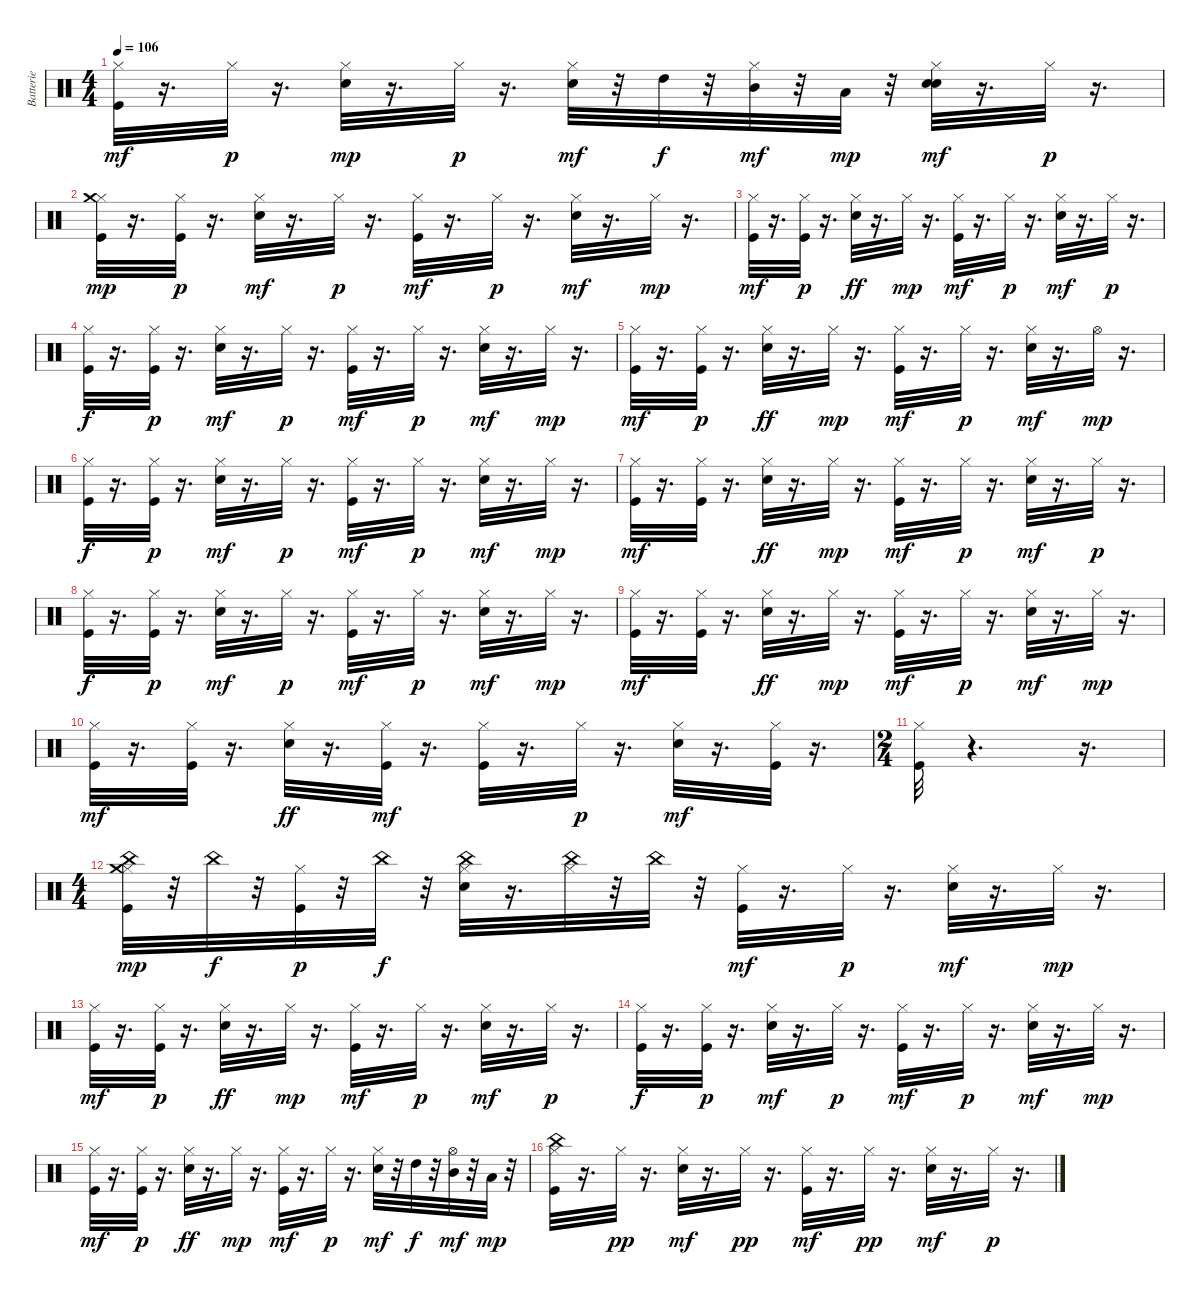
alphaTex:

\track ("Batterie" "Batterie") {instrument percussion}
\staff {score}
\articulation defaults
\ts (4 4)
\tempo 106
\clef neutral
\ks c
("Hi-Hat (closed)" "Kick (hit)").32{dy mf} r.16{d} "Hi-Hat (closed)".32{dy p} r.16{d} ("Hi-Hat (closed)" "Electric Snare (hit)").32{dy mp} r.16{d} "Hi-Hat (closed)".32{dy p} r.16{d} ("Hi-Hat (closed)" "Electric Snare (hit)").32{dy mf} r.32 "High Tom (hit)".32{dy f} r.32 ("Hi-Hat (closed)" "Mid Tom (hit)").32{dy mf} r.32 "Low Tom (hit)".32{dy mp} r.32 ("Electric Snare (hit)" "Hi-Hat (closed)" "Electric Snare (hit)").32{dy mf} r.16{d} "Hi-Hat (closed)".32{dy p} r.16{d} |
("Hi-Hat (closed)" "Crash medium (hit)" "Kick (hit)").32{dy mp} r.16{d} ("Hi-Hat (closed)" "Kick (hit)").32{dy p} r.16{d} ("Hi-Hat (closed)" "Electric Snare (hit)").32{dy mf} r.16{d} "Hi-Hat (closed)".32{dy p} r.16{d} ("Hi-Hat (closed)" "Kick (hit)").32{dy mf} r.16{d} "Hi-Hat (closed)".32{dy p} r.16{d} ("Hi-Hat (closed)" "Electric Snare (hit)").32{dy mf} r.16{d} "Hi-Hat (closed)".32{dy mp} r.16{d} |
("Hi-Hat (closed)" "Kick (hit)").32{dy mf} r.16{d} ("Kick (hit)" "Hi-Hat (closed)").32{dy p} r.16{d} ("Hi-Hat (closed)" "Electric Snare (hit)").32{dy ff} r.16{d} "Hi-Hat (closed)".32{dy mp} r.16{d} ("Hi-Hat (closed)" "Kick (hit)").32{dy mf} r.16{d} "Hi-Hat (closed)".32{dy p} r.16{d} ("Hi-Hat (closed)" "Electric Snare (hit)").32{dy mf} r.16{d} "Hi-Hat (closed)".32{dy p} r.16{d} |
("Hi-Hat (closed)" "Kick (hit)").32{dy f} r.16{d} ("Hi-Hat (closed)" "Kick (hit)").32{dy p} r.16{d} ("Hi-Hat (closed)" "Electric Snare (hit)").32{dy mf} r.16{d} "Hi-Hat (closed)".32{dy p} r.16{d} ("Hi-Hat (closed)" "Kick (hit)").32{dy mf} r.16{d} "Hi-Hat (closed)".32{dy p} r.16{d} ("Hi-Hat (closed)" "Electric Snare (hit)").32{dy mf} r.16{d} "Hi-Hat (closed)".32{dy mp} r.16{d} |
("Hi-Hat (closed)" "Kick (hit)").32{dy mf} r.16{d} ("Kick (hit)" "Hi-Hat (closed)").32{dy p} r.16{d} ("Hi-Hat (closed)" "Electric Snare (hit)").32{dy ff} r.16{d} "Hi-Hat (closed)".32{dy mp} r.16{d} ("Hi-Hat (closed)" "Kick (hit)").32{dy mf} r.16{d} "Hi-Hat (closed)".32{dy p} r.16{d} ("Hi-Hat (closed)" "Electric Snare (hit)").32{dy mf} r.16{d} "Hi-Hat (open)".32{dy mp} r.16{d} |
("Hi-Hat (closed)" "Kick (hit)").32{dy f} r.16{d} ("Hi-Hat (closed)" "Kick (hit)").32{dy p} r.16{d} ("Hi-Hat (closed)" "Electric Snare (hit)").32{dy mf} r.16{d} "Hi-Hat (closed)".32{dy p} r.16{d} ("Hi-Hat (closed)" "Kick (hit)").32{dy mf} r.16{d} "Hi-Hat (closed)".32{dy p} r.16{d} ("Hi-Hat (closed)" "Electric Snare (hit)").32{dy mf} r.16{d} "Hi-Hat (closed)".32{dy mp} r.16{d} |
("Hi-Hat (closed)" "Kick (hit)").32{dy mf} r.16{d} ("Hi-Hat (closed)" "Kick (hit)").32 r.16{d} ("Hi-Hat (closed)" "Electric Snare (hit)").32{dy ff} r.16{d} "Hi-Hat (closed)".32{dy mp} r.16{d} ("Hi-Hat (closed)" "Kick (hit)").32{dy mf} r.16{d} "Hi-Hat (closed)".32{dy p} r.16{d} ("Hi-Hat (closed)" "Electric Snare (hit)").32{dy mf} r.16{d} "Hi-Hat (closed)".32{dy p} r.16{d} |
("Hi-Hat (closed)" "Kick (hit)").32{dy f} r.16{d} ("Hi-Hat (closed)" "Kick (hit)").32{dy p} r.16{d} ("Hi-Hat (closed)" "Electric Snare (hit)").32{dy mf} r.16{d} "Hi-Hat (closed)".32{dy p} r.16{d} ("Hi-Hat (closed)" "Kick (hit)").32{dy mf} r.16{d} "Hi-Hat (closed)".32{dy p} r.16{d} ("Hi-Hat (closed)" "Electric Snare (hit)").32{dy mf} r.16{d} "Hi-Hat (closed)".32{dy mp} r.16{d} |
("Hi-Hat (closed)" "Kick (hit)").32{dy mf} r.16{d} ("Hi-Hat (closed)" "Kick (hit)").32 r.16{d} ("Hi-Hat (closed)" "Electric Snare (hit)").32{dy ff} r.16{d} "Hi-Hat (closed)".32{dy mp} r.16{d} ("Hi-Hat (closed)" "Kick (hit)").32{dy mf} r.16{d} "Hi-Hat (closed)".32{dy p} r.16{d} ("Hi-Hat (closed)" "Electric Snare (hit)").32{dy mf} r.16{d} "Hi-Hat (closed)".32{dy mp} r.16{d} |
("Hi-Hat (closed)" "Kick (hit)").32{dy mf} r.16{d} ("Hi-Hat (closed)" "Kick (hit)").32 r.16{d} ("Hi-Hat (closed)" "Electric Snare (hit)").32{dy ff} r.16{d} ("Hi-Hat (closed)" "Kick (hit)").32{dy mf} r.16{d} ("Hi-Hat (closed)" "Kick (hit)").32 r.16{d} "Hi-Hat (closed)".32{dy p} r.16{d} ("Hi-Hat (closed)" "Electric Snare (hit)").32{dy mf} r.16{d} ("Hi-Hat (closed)" "Kick (hit)").32 r.16{d} |
\ts (2 4)
("Kick (hit)" "Hi-Hat (closed)").32 r.4{d} r.16{d} |
\ts (4 4)
("Hi-Hat (closed)" "China (choke)" "Crash medium (hit)" "Kick (hit)").32{dy mp} r.32 "China (choke)".32{dy f} r.32 ("Hi-Hat (closed)" "Kick (hit)").32{dy p} r.32 "China (choke)".32{dy f} r.32 ("Hi-Hat (closed)" "Electric Snare (hit)" "China (choke)").32 r.16{d} ("Hi-Hat (closed)" "China (choke)").32 r.32 "China (choke)".32 r.32 ("Hi-Hat (closed)" "Kick (hit)").32{dy mf} r.16{d} "Hi-Hat (closed)".32{dy p} r.16{d} ("Hi-Hat (closed)" "Electric Snare (hit)").32{dy mf} r.16{d} "Hi-Hat (closed)".32{dy mp} r.16{d} |
("Hi-Hat (closed)" "Kick (hit)").32{dy mf} r.16{d} ("Kick (hit)" "Hi-Hat (closed)").32{dy p} r.16{d} ("Hi-Hat (closed)" "Electric Snare (hit)").32{dy ff} r.16{d} "Hi-Hat (closed)".32{dy mp} r.16{d} ("Hi-Hat (closed)" "Kick (hit)").32{dy mf} r.16{d} "Hi-Hat (closed)".32{dy p} r.16{d} ("Hi-Hat (closed)" "Electric Snare (hit)").32{dy mf} r.16{d} "Hi-Hat (closed)".32{dy p} r.16{d} |
("Hi-Hat (closed)" "Kick (hit)").32{dy f} r.16{d} ("Hi-Hat (closed)" "Kick (hit)").32{dy p} r.16{d} ("Hi-Hat (closed)" "Electric Snare (hit)").32{dy mf} r.16{d} "Hi-Hat (closed)".32{dy p} r.16{d} ("Hi-Hat (closed)" "Kick (hit)").32{dy mf} r.16{d} "Hi-Hat (closed)".32{dy p} r.16{d} ("Hi-Hat (closed)" "Electric Snare (hit)").32{dy mf} r.16{d} "Hi-Hat (closed)".32{dy mp} r.16{d} |
("Hi-Hat (closed)" "Kick (hit)").32{dy mf} r.16{d} ("Kick (hit)" "Hi-Hat (closed)").32{dy p} r.16{d} ("Hi-Hat (closed)" "Electric Snare (hit)").32{dy ff} r.16{d} "Hi-Hat (closed)".32{dy mp} r.16{d} ("Hi-Hat (closed)" "Kick (hit)").32{dy mf} r.16{d} "Hi-Hat (closed)".32{dy p} r.16{d} ("Hi-Hat (closed)" "Electric Snare (hit)").32{dy mf} r.32 "High Tom (hit)".32{dy f} r.32 ("Hi-Hat (open)" "Mid Tom (hit)").32{dy mf} r.32 "Low Tom (hit)".32{dy mp} r.32 |
("Hi-Hat (closed)" "Kick (hit)" "China (hit)").32 r.16{d} "Hi-Hat (closed)".32{dy pp} r.16{d} ("Hi-Hat (closed)" "Electric Snare (hit)").32{dy mf} r.16{d} "Hi-Hat (closed)".32{dy pp} r.16{d} ("Hi-Hat (closed)" "Kick (hit)").32{dy mf} r.16{d} "Hi-Hat (closed)".32{dy pp} r.16{d} ("Hi-Hat (closed)" "Electric Snare (hit)").32{dy mf} r.16{d} "Hi-Hat (closed)".32{dy p} r.16{d}
